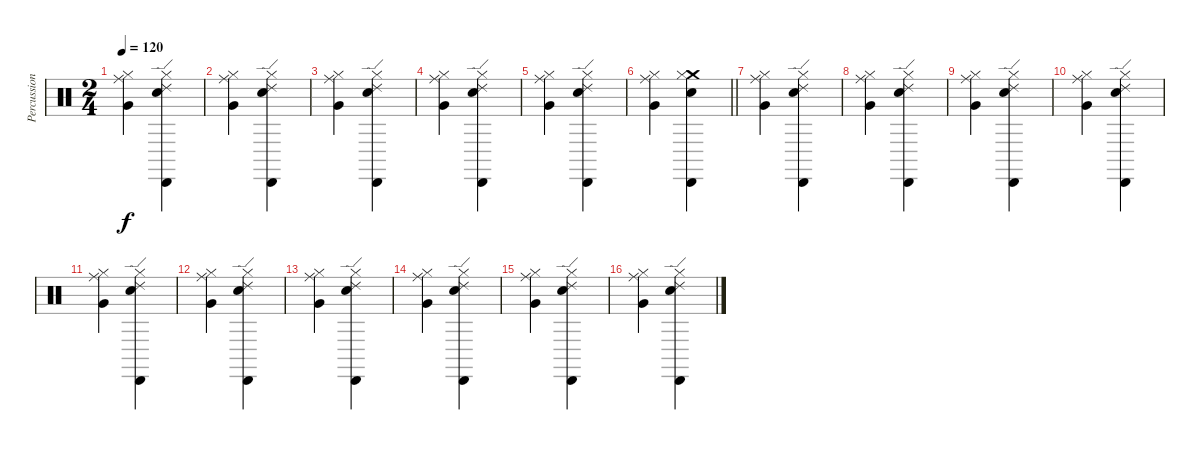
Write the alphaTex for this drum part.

\track ("Percussions" "Percussion") {instrument percussion}
\staff {score}
\articulation defaults
\ts (2 4)
\tempo 120
\clef neutral
\ks c
("Ride (middle)" "Hi-Hat (closed)" "Very Low Tom (hit)").4{dy f} ("Ride (edge) 2" "Cabasa (hit)" "Hi-Hat (closed)" "Electric Snare (hit)").4 |
("Ride (middle)" "Hi-Hat (closed)" "Very Low Tom (hit)").4 ("Ride (edge) 2" "Cabasa (hit)" "Hi-Hat (closed)" "Electric Snare (hit)").4 |
("Ride (middle)" "Hi-Hat (closed)" "Very Low Tom (hit)").4 ("Ride (edge) 2" "Cabasa (hit)" "Hi-Hat (closed)" "Electric Snare (hit)").4 |
("Ride (middle)" "Hi-Hat (closed)" "Very Low Tom (hit)").4 ("Ride (edge) 2" "Cabasa (hit)" "Hi-Hat (closed)" "Electric Snare (hit)").4 |
("Ride (middle)" "Hi-Hat (closed)" "Very Low Tom (hit)").4 ("Ride (edge) 2" "Cabasa (hit)" "Hi-Hat (closed)" "Electric Snare (hit)").4 |
\barLineRight lightlight
("Ride (middle)" "Hi-Hat (closed)" "Very Low Tom (hit)").4 ("Crash medium (hit)" "Cabasa (hit)" "Hi-Hat (closed)" "Electric Snare (hit)").4 |
("Ride (middle)" "Hi-Hat (closed)" "Very Low Tom (hit)").4 ("Ride (edge) 2" "Cabasa (hit)" "Hi-Hat (closed)" "Electric Snare (hit)").4 |
("Ride (middle)" "Hi-Hat (closed)" "Very Low Tom (hit)").4 ("Ride (edge) 2" "Cabasa (hit)" "Hi-Hat (closed)" "Electric Snare (hit)").4 |
("Ride (middle)" "Hi-Hat (closed)" "Very Low Tom (hit)").4 ("Ride (edge) 2" "Cabasa (hit)" "Hi-Hat (closed)" "Electric Snare (hit)").4 |
("Ride (middle)" "Hi-Hat (closed)" "Very Low Tom (hit)").4 ("Ride (edge) 2" "Cabasa (hit)" "Hi-Hat (closed)" "Electric Snare (hit)").4 |
("Ride (middle)" "Hi-Hat (closed)" "Very Low Tom (hit)").4 ("Ride (edge) 2" "Cabasa (hit)" "Hi-Hat (closed)" "Electric Snare (hit)").4 |
("Ride (middle)" "Hi-Hat (closed)" "Very Low Tom (hit)").4 ("Ride (edge) 2" "Cabasa (hit)" "Hi-Hat (closed)" "Electric Snare (hit)").4 |
("Ride (middle)" "Hi-Hat (closed)" "Very Low Tom (hit)").4 ("Ride (edge) 2" "Cabasa (hit)" "Hi-Hat (closed)" "Electric Snare (hit)").4 |
("Ride (middle)" "Hi-Hat (closed)" "Very Low Tom (hit)").4 ("Ride (edge) 2" "Cabasa (hit)" "Hi-Hat (closed)" "Electric Snare (hit)").4 |
("Ride (middle)" "Hi-Hat (closed)" "Very Low Tom (hit)").4 ("Ride (edge) 2" "Cabasa (hit)" "Hi-Hat (closed)" "Electric Snare (hit)").4 |
("Ride (middle)" "Hi-Hat (closed)" "Very Low Tom (hit)").4 ("Ride (edge) 2" "Cabasa (hit)" "Hi-Hat (closed)" "Electric Snare (hit)").4
